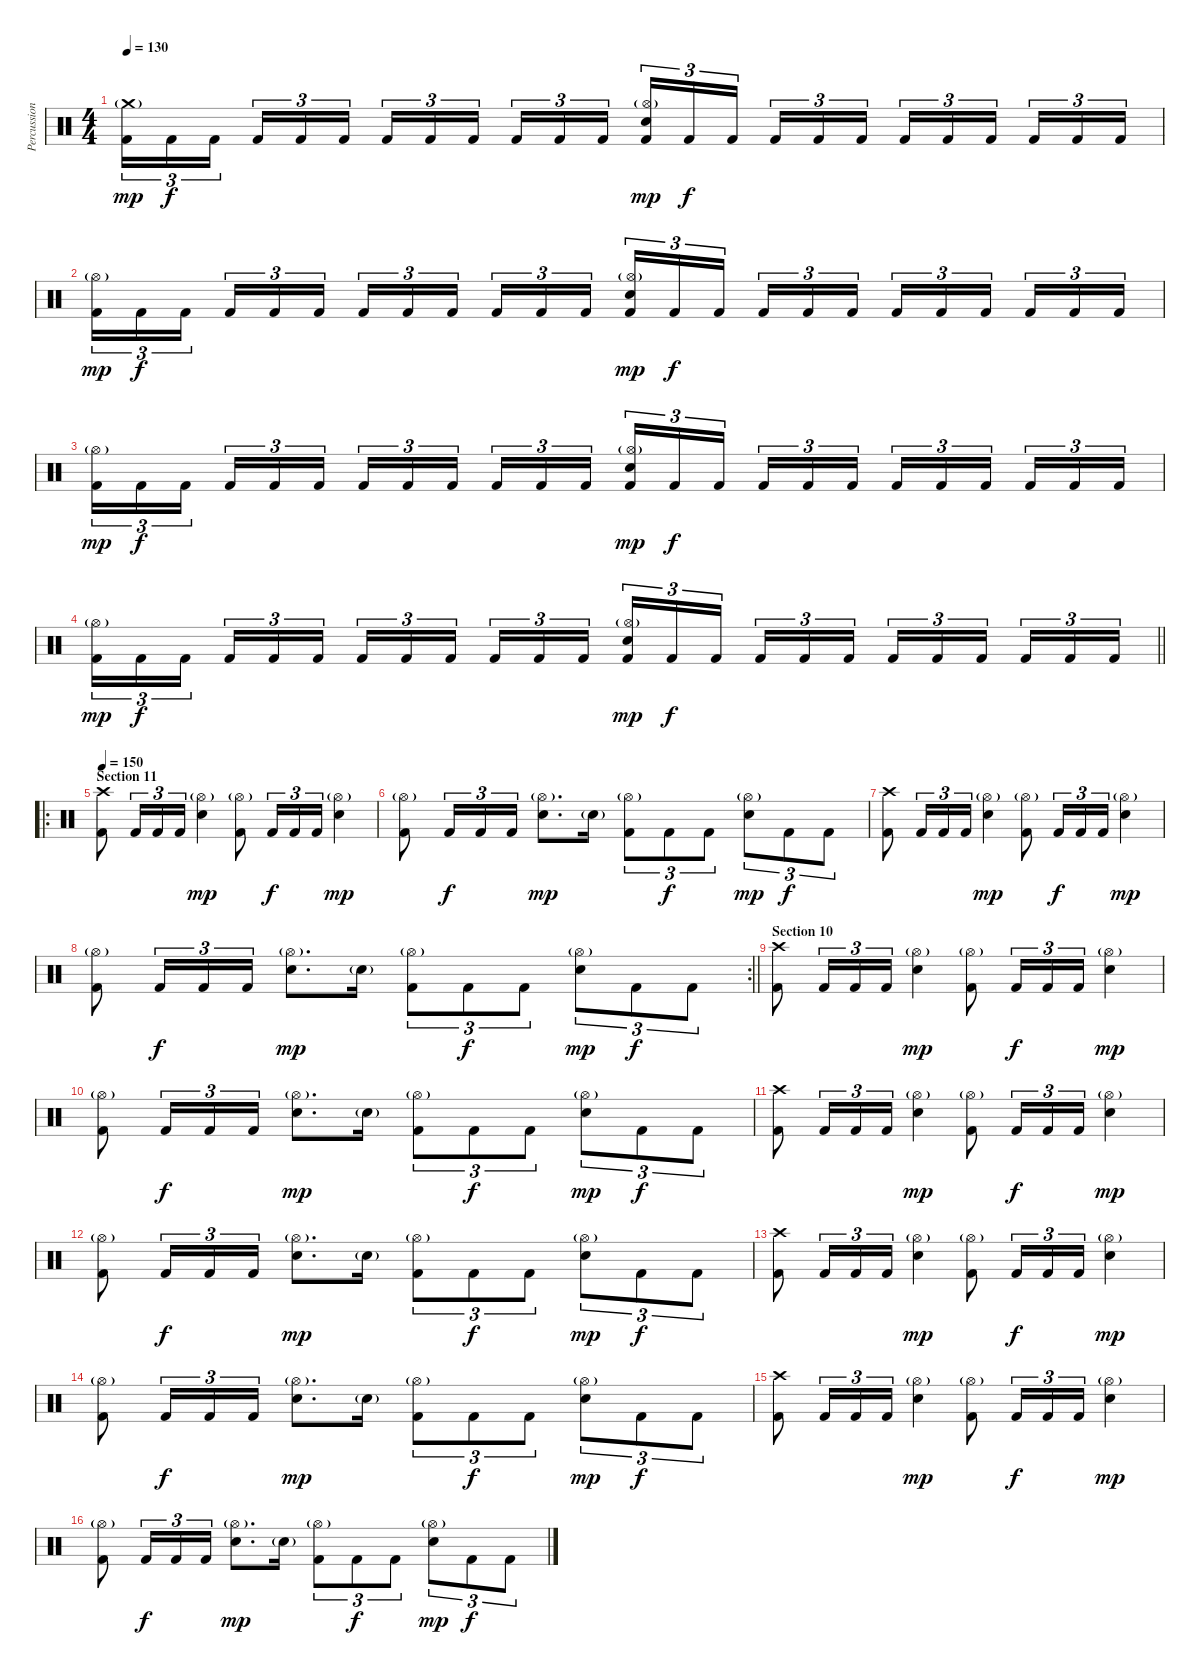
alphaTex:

\track ("Percussions" "Percussion") {instrument percussion}
\staff {score}
\articulation defaults
\ts (4 4)
\tempo 130
\clef neutral
\ks c
("Crash medium (hit)"{g} "Kick (hit) 2").16{tu (3 2) dy mp} "Kick (hit) 2".16{tu (3 2) dy f} "Kick (hit) 2".16{tu (3 2)} "Kick (hit) 2".16{tu (3 2)} "Kick (hit) 2".16{tu (3 2)} "Kick (hit) 2".16{tu (3 2)} "Kick (hit) 2".16{tu (3 2)} "Kick (hit) 2".16{tu (3 2)} "Kick (hit) 2".16{tu (3 2)} "Kick (hit) 2".16{tu (3 2)} "Kick (hit) 2".16{tu (3 2)} "Kick (hit) 2".16{tu (3 2)} ("Hi-Hat (open)"{g} "Electric Snare (hit)" "Kick (hit) 2").16{tu (3 2) dy mp} "Kick (hit) 2".16{tu (3 2) dy f} "Kick (hit) 2".16{tu (3 2)} "Kick (hit) 2".16{tu (3 2)} "Kick (hit) 2".16{tu (3 2)} "Kick (hit) 2".16{tu (3 2)} "Kick (hit) 2".16{tu (3 2)} "Kick (hit) 2".16{tu (3 2)} "Kick (hit) 2".16{tu (3 2)} "Kick (hit) 2".16{tu (3 2)} "Kick (hit) 2".16{tu (3 2)} "Kick (hit) 2".16{tu (3 2)} |
("Hi-Hat (open)"{g} "Kick (hit) 2").16{tu (3 2) dy mp} "Kick (hit) 2".16{tu (3 2) dy f} "Kick (hit) 2".16{tu (3 2)} "Kick (hit) 2".16{tu (3 2)} "Kick (hit) 2".16{tu (3 2)} "Kick (hit) 2".16{tu (3 2)} "Kick (hit) 2".16{tu (3 2)} "Kick (hit) 2".16{tu (3 2)} "Kick (hit) 2".16{tu (3 2)} "Kick (hit) 2".16{tu (3 2)} "Kick (hit) 2".16{tu (3 2)} "Kick (hit) 2".16{tu (3 2)} ("Hi-Hat (open)"{g} "Electric Snare (hit)" "Kick (hit) 2").16{tu (3 2) dy mp} "Kick (hit) 2".16{tu (3 2) dy f} "Kick (hit) 2".16{tu (3 2)} "Kick (hit) 2".16{tu (3 2)} "Kick (hit) 2".16{tu (3 2)} "Kick (hit) 2".16{tu (3 2)} "Kick (hit) 2".16{tu (3 2)} "Kick (hit) 2".16{tu (3 2)} "Kick (hit) 2".16{tu (3 2)} "Kick (hit) 2".16{tu (3 2)} "Kick (hit) 2".16{tu (3 2)} "Kick (hit) 2".16{tu (3 2)} |
("Hi-Hat (open)"{g} "Kick (hit) 2").16{tu (3 2) dy mp} "Kick (hit) 2".16{tu (3 2) dy f} "Kick (hit) 2".16{tu (3 2)} "Kick (hit) 2".16{tu (3 2)} "Kick (hit) 2".16{tu (3 2)} "Kick (hit) 2".16{tu (3 2)} "Kick (hit) 2".16{tu (3 2)} "Kick (hit) 2".16{tu (3 2)} "Kick (hit) 2".16{tu (3 2)} "Kick (hit) 2".16{tu (3 2)} "Kick (hit) 2".16{tu (3 2)} "Kick (hit) 2".16{tu (3 2)} ("Hi-Hat (open)"{g} "Electric Snare (hit)" "Kick (hit) 2").16{tu (3 2) dy mp} "Kick (hit) 2".16{tu (3 2) dy f} "Kick (hit) 2".16{tu (3 2)} "Kick (hit) 2".16{tu (3 2)} "Kick (hit) 2".16{tu (3 2)} "Kick (hit) 2".16{tu (3 2)} "Kick (hit) 2".16{tu (3 2)} "Kick (hit) 2".16{tu (3 2)} "Kick (hit) 2".16{tu (3 2)} "Kick (hit) 2".16{tu (3 2)} "Kick (hit) 2".16{tu (3 2)} "Kick (hit) 2".16{tu (3 2)} |
\barLineRight lightlight
("Hi-Hat (open)"{g} "Kick (hit) 2").16{tu (3 2) dy mp} "Kick (hit) 2".16{tu (3 2) dy f} "Kick (hit) 2".16{tu (3 2)} "Kick (hit) 2".16{tu (3 2)} "Kick (hit) 2".16{tu (3 2)} "Kick (hit) 2".16{tu (3 2)} "Kick (hit) 2".16{tu (3 2)} "Kick (hit) 2".16{tu (3 2)} "Kick (hit) 2".16{tu (3 2)} "Kick (hit) 2".16{tu (3 2)} "Kick (hit) 2".16{tu (3 2)} "Kick (hit) 2".16{tu (3 2)} ("Hi-Hat (open)"{g} "Electric Snare (hit)" "Kick (hit) 2").16{tu (3 2) dy mp} "Kick (hit) 2".16{tu (3 2) dy f} "Kick (hit) 2".16{tu (3 2)} "Kick (hit) 2".16{tu (3 2)} "Kick (hit) 2".16{tu (3 2)} "Kick (hit) 2".16{tu (3 2)} "Kick (hit) 2".16{tu (3 2)} "Kick (hit) 2".16{tu (3 2)} "Kick (hit) 2".16{tu (3 2)} "Kick (hit) 2".16{tu (3 2)} "Kick (hit) 2".16{tu (3 2)} "Kick (hit) 2".16{tu (3 2)} |
\ro
\section ("" "Section 11")
\tempo 150
("Crash high (hit)" "Kick (hit) 2").8 "Kick (hit) 2".16{tu (3 2)} "Kick (hit) 2".16{tu (3 2)} "Kick (hit) 2".16{tu (3 2)} ("Hi-Hat (open)"{g} "Electric Snare (hit)").4{dy mp} ("Hi-Hat (open)"{g} "Kick (hit) 2").8 "Kick (hit) 2".16{tu (3 2) dy f} "Kick (hit) 2".16{tu (3 2)} "Kick (hit) 2".16{tu (3 2)} ("Hi-Hat (open)"{g} "Electric Snare (hit)").4{dy mp} |
("Hi-Hat (open)"{g} "Kick (hit) 2").8 "Kick (hit) 2".16{tu (3 2) dy f} "Kick (hit) 2".16{tu (3 2)} "Kick (hit) 2".16{tu (3 2)} ("Hi-Hat (open)"{g} "Electric Snare (hit)").8{d dy mp} "Electric Snare (hit)"{g}.16 ("Hi-Hat (open)"{g} "Kick (hit) 2").8{tu (3 2)} "Kick (hit) 2".8{tu (3 2) dy f} "Kick (hit) 2".8{tu (3 2)} ("Hi-Hat (open)"{g} "Electric Snare (hit)").8{tu (3 2) dy mp} "Kick (hit) 2".8{tu (3 2) dy f} "Kick (hit) 2".8{tu (3 2)} |
("Crash high (hit)" "Kick (hit) 2").8 "Kick (hit) 2".16{tu (3 2)} "Kick (hit) 2".16{tu (3 2)} "Kick (hit) 2".16{tu (3 2)} ("Hi-Hat (open)"{g} "Electric Snare (hit)").4{dy mp} ("Hi-Hat (open)"{g} "Kick (hit) 2").8 "Kick (hit) 2".16{tu (3 2) dy f} "Kick (hit) 2".16{tu (3 2)} "Kick (hit) 2".16{tu (3 2)} ("Hi-Hat (open)"{g} "Electric Snare (hit)").4{dy mp} |
\rc 2
\barLineRight lightlight
("Hi-Hat (open)"{g} "Kick (hit) 2").8 "Kick (hit) 2".16{tu (3 2) dy f} "Kick (hit) 2".16{tu (3 2)} "Kick (hit) 2".16{tu (3 2)} ("Hi-Hat (open)"{g} "Electric Snare (hit)").8{d dy mp} "Electric Snare (hit)"{g}.16 ("Hi-Hat (open)"{g} "Kick (hit) 2").8{tu (3 2)} "Kick (hit) 2".8{tu (3 2) dy f} "Kick (hit) 2".8{tu (3 2)} ("Hi-Hat (open)"{g} "Electric Snare (hit)").8{tu (3 2) dy mp} "Kick (hit) 2".8{tu (3 2) dy f} "Kick (hit) 2".8{tu (3 2)} |
\section ("" "Section 10")
("Crash high (hit)" "Kick (hit) 2").8 "Kick (hit) 2".16{tu (3 2)} "Kick (hit) 2".16{tu (3 2)} "Kick (hit) 2".16{tu (3 2)} ("Hi-Hat (open)"{g} "Electric Snare (hit)").4{dy mp} ("Hi-Hat (open)"{g} "Kick (hit) 2").8 "Kick (hit) 2".16{tu (3 2) dy f} "Kick (hit) 2".16{tu (3 2)} "Kick (hit) 2".16{tu (3 2)} ("Hi-Hat (open)"{g} "Electric Snare (hit)").4{dy mp} |
("Hi-Hat (open)"{g} "Kick (hit) 2").8 "Kick (hit) 2".16{tu (3 2) dy f} "Kick (hit) 2".16{tu (3 2)} "Kick (hit) 2".16{tu (3 2)} ("Hi-Hat (open)"{g} "Electric Snare (hit)").8{d dy mp} "Electric Snare (hit)"{g}.16 ("Hi-Hat (open)"{g} "Kick (hit) 2").8{tu (3 2)} "Kick (hit) 2".8{tu (3 2) dy f} "Kick (hit) 2".8{tu (3 2)} ("Hi-Hat (open)"{g} "Electric Snare (hit)").8{tu (3 2) dy mp} "Kick (hit) 2".8{tu (3 2) dy f} "Kick (hit) 2".8{tu (3 2)} |
("Crash high (hit)" "Kick (hit) 2").8 "Kick (hit) 2".16{tu (3 2)} "Kick (hit) 2".16{tu (3 2)} "Kick (hit) 2".16{tu (3 2)} ("Hi-Hat (open)"{g} "Electric Snare (hit)").4{dy mp} ("Hi-Hat (open)"{g} "Kick (hit) 2").8 "Kick (hit) 2".16{tu (3 2) dy f} "Kick (hit) 2".16{tu (3 2)} "Kick (hit) 2".16{tu (3 2)} ("Hi-Hat (open)"{g} "Electric Snare (hit)").4{dy mp} |
("Hi-Hat (open)"{g} "Kick (hit) 2").8 "Kick (hit) 2".16{tu (3 2) dy f} "Kick (hit) 2".16{tu (3 2)} "Kick (hit) 2".16{tu (3 2)} ("Hi-Hat (open)"{g} "Electric Snare (hit)").8{d dy mp} "Electric Snare (hit)"{g}.16 ("Hi-Hat (open)"{g} "Kick (hit) 2").8{tu (3 2)} "Kick (hit) 2".8{tu (3 2) dy f} "Kick (hit) 2".8{tu (3 2)} ("Hi-Hat (open)"{g} "Electric Snare (hit)").8{tu (3 2) dy mp} "Kick (hit) 2".8{tu (3 2) dy f} "Kick (hit) 2".8{tu (3 2)} |
("Crash high (hit)" "Kick (hit) 2").8 "Kick (hit) 2".16{tu (3 2)} "Kick (hit) 2".16{tu (3 2)} "Kick (hit) 2".16{tu (3 2)} ("Hi-Hat (open)"{g} "Electric Snare (hit)").4{dy mp} ("Hi-Hat (open)"{g} "Kick (hit) 2").8 "Kick (hit) 2".16{tu (3 2) dy f} "Kick (hit) 2".16{tu (3 2)} "Kick (hit) 2".16{tu (3 2)} ("Hi-Hat (open)"{g} "Electric Snare (hit)").4{dy mp} |
("Hi-Hat (open)"{g} "Kick (hit) 2").8 "Kick (hit) 2".16{tu (3 2) dy f} "Kick (hit) 2".16{tu (3 2)} "Kick (hit) 2".16{tu (3 2)} ("Hi-Hat (open)"{g} "Electric Snare (hit)").8{d dy mp} "Electric Snare (hit)"{g}.16 ("Hi-Hat (open)"{g} "Kick (hit) 2").8{tu (3 2)} "Kick (hit) 2".8{tu (3 2) dy f} "Kick (hit) 2".8{tu (3 2)} ("Hi-Hat (open)"{g} "Electric Snare (hit)").8{tu (3 2) dy mp} "Kick (hit) 2".8{tu (3 2) dy f} "Kick (hit) 2".8{tu (3 2)} |
("Crash high (hit)" "Kick (hit) 2").8 "Kick (hit) 2".16{tu (3 2)} "Kick (hit) 2".16{tu (3 2)} "Kick (hit) 2".16{tu (3 2)} ("Hi-Hat (open)"{g} "Electric Snare (hit)").4{dy mp} ("Hi-Hat (open)"{g} "Kick (hit) 2").8 "Kick (hit) 2".16{tu (3 2) dy f} "Kick (hit) 2".16{tu (3 2)} "Kick (hit) 2".16{tu (3 2)} ("Hi-Hat (open)"{g} "Electric Snare (hit)").4{dy mp} |
("Hi-Hat (open)"{g} "Kick (hit) 2").8 "Kick (hit) 2".16{tu (3 2) dy f} "Kick (hit) 2".16{tu (3 2)} "Kick (hit) 2".16{tu (3 2)} ("Hi-Hat (open)"{g} "Electric Snare (hit)").8{d dy mp} "Electric Snare (hit)"{g}.16 ("Hi-Hat (open)"{g} "Kick (hit) 2").8{tu (3 2)} "Kick (hit) 2".8{tu (3 2) dy f} "Kick (hit) 2".8{tu (3 2)} ("Hi-Hat (open)"{g} "Electric Snare (hit)").8{tu (3 2) dy mp} "Kick (hit) 2".8{tu (3 2) dy f} "Kick (hit) 2".8{tu (3 2)}
